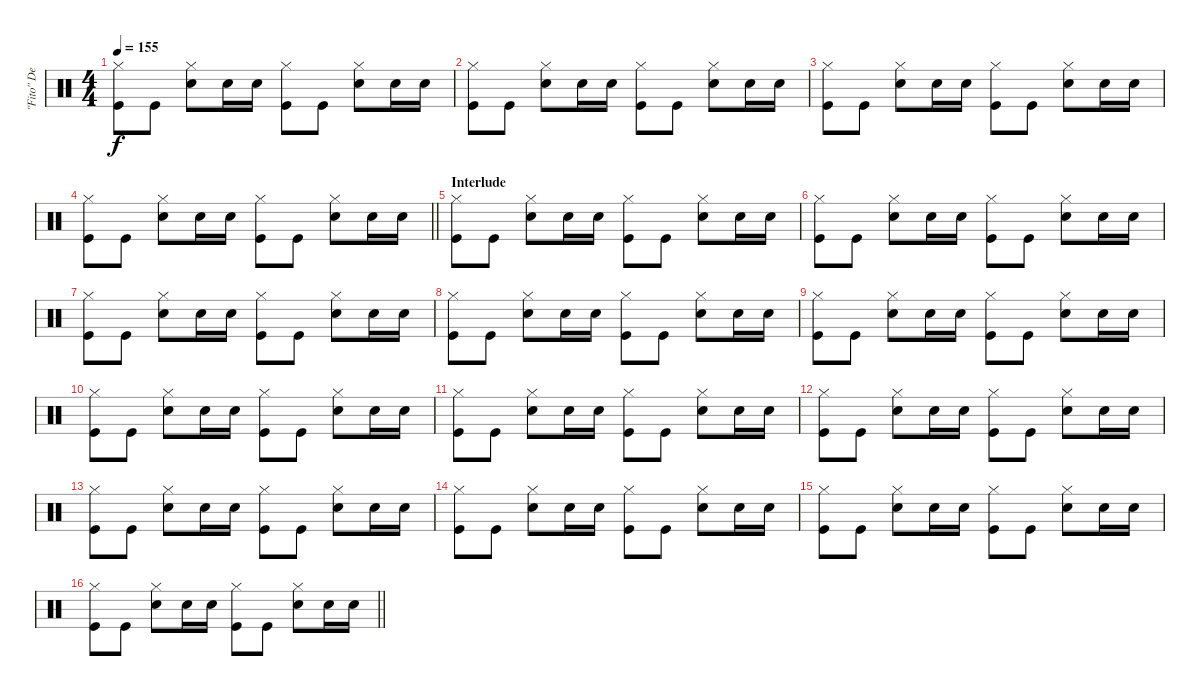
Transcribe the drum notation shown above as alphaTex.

\track ("\"Fito\" De La Parra" "\"Fito\" De ") {instrument percussion}
\staff {score}
\articulation defaults
\ts (4 4)
\tempo 155
\clef neutral
\ks c
("Hi-Hat (closed)" "Kick (hit)").8{dy f} "Kick (hit)".8 ("Hi-Hat (closed)" "Snare (hit) 2").8 "Snare (hit) 2".16 "Snare (hit) 2".16 ("Hi-Hat (closed)" "Kick (hit)").8 "Kick (hit)".8 ("Hi-Hat (closed)" "Snare (hit) 2").8 "Snare (hit) 2".16 "Snare (hit) 2".16 |
("Hi-Hat (closed)" "Kick (hit)").8 "Kick (hit)".8 ("Hi-Hat (closed)" "Snare (hit) 2").8 "Snare (hit) 2".16 "Snare (hit) 2".16 ("Hi-Hat (closed)" "Kick (hit)").8 "Kick (hit)".8 ("Hi-Hat (closed)" "Snare (hit) 2").8 "Snare (hit) 2".16 "Snare (hit) 2".16 |
("Hi-Hat (closed)" "Kick (hit)").8 "Kick (hit)".8 ("Hi-Hat (closed)" "Snare (hit) 2").8 "Snare (hit) 2".16 "Snare (hit) 2".16 ("Hi-Hat (closed)" "Kick (hit)").8 "Kick (hit)".8 ("Hi-Hat (closed)" "Snare (hit) 2").8 "Snare (hit) 2".16 "Snare (hit) 2".16 |
\barLineRight lightlight
("Hi-Hat (closed)" "Kick (hit)").8 "Kick (hit)".8 ("Hi-Hat (closed)" "Snare (hit) 2").8 "Snare (hit) 2".16 "Snare (hit) 2".16 ("Hi-Hat (closed)" "Kick (hit)").8 "Kick (hit)".8 ("Hi-Hat (closed)" "Snare (hit) 2").8 "Snare (hit) 2".16 "Snare (hit) 2".16 |
\section ("" "Interlude")
("Hi-Hat (closed)" "Kick (hit)").8 "Kick (hit)".8 ("Hi-Hat (closed)" "Snare (hit) 2").8 "Snare (hit) 2".16 "Snare (hit) 2".16 ("Hi-Hat (closed)" "Kick (hit)").8 "Kick (hit)".8 ("Hi-Hat (closed)" "Snare (hit) 2").8 "Snare (hit) 2".16 "Snare (hit) 2".16 |
("Hi-Hat (closed)" "Kick (hit)").8 "Kick (hit)".8 ("Hi-Hat (closed)" "Snare (hit) 2").8 "Snare (hit) 2".16 "Snare (hit) 2".16 ("Hi-Hat (closed)" "Kick (hit)").8 "Kick (hit)".8 ("Hi-Hat (closed)" "Snare (hit) 2").8 "Snare (hit) 2".16 "Snare (hit) 2".16 |
("Hi-Hat (closed)" "Kick (hit)").8 "Kick (hit)".8 ("Hi-Hat (closed)" "Snare (hit) 2").8 "Snare (hit) 2".16 "Snare (hit) 2".16 ("Hi-Hat (closed)" "Kick (hit)").8 "Kick (hit)".8 ("Hi-Hat (closed)" "Snare (hit) 2").8 "Snare (hit) 2".16 "Snare (hit) 2".16 |
("Hi-Hat (closed)" "Kick (hit)").8 "Kick (hit)".8 ("Hi-Hat (closed)" "Snare (hit) 2").8 "Snare (hit) 2".16 "Snare (hit) 2".16 ("Hi-Hat (closed)" "Kick (hit)").8 "Kick (hit)".8 ("Hi-Hat (closed)" "Snare (hit) 2").8 "Snare (hit) 2".16 "Snare (hit) 2".16 |
("Hi-Hat (closed)" "Kick (hit)").8 "Kick (hit)".8 ("Hi-Hat (closed)" "Snare (hit) 2").8 "Snare (hit) 2".16 "Snare (hit) 2".16 ("Hi-Hat (closed)" "Kick (hit)").8 "Kick (hit)".8 ("Hi-Hat (closed)" "Snare (hit) 2").8 "Snare (hit) 2".16 "Snare (hit) 2".16 |
("Hi-Hat (closed)" "Kick (hit)").8 "Kick (hit)".8 ("Hi-Hat (closed)" "Snare (hit) 2").8 "Snare (hit) 2".16 "Snare (hit) 2".16 ("Hi-Hat (closed)" "Kick (hit)").8 "Kick (hit)".8 ("Hi-Hat (closed)" "Snare (hit) 2").8 "Snare (hit) 2".16 "Snare (hit) 2".16 |
("Hi-Hat (closed)" "Kick (hit)").8 "Kick (hit)".8 ("Hi-Hat (closed)" "Snare (hit) 2").8 "Snare (hit) 2".16 "Snare (hit) 2".16 ("Hi-Hat (closed)" "Kick (hit)").8 "Kick (hit)".8 ("Hi-Hat (closed)" "Snare (hit) 2").8 "Snare (hit) 2".16 "Snare (hit) 2".16 |
("Hi-Hat (closed)" "Kick (hit)").8 "Kick (hit)".8 ("Hi-Hat (closed)" "Snare (hit) 2").8 "Snare (hit) 2".16 "Snare (hit) 2".16 ("Hi-Hat (closed)" "Kick (hit)").8 "Kick (hit)".8 ("Hi-Hat (closed)" "Snare (hit) 2").8 "Snare (hit) 2".16 "Snare (hit) 2".16 |
("Hi-Hat (closed)" "Kick (hit)").8 "Kick (hit)".8 ("Hi-Hat (closed)" "Snare (hit) 2").8 "Snare (hit) 2".16 "Snare (hit) 2".16 ("Hi-Hat (closed)" "Kick (hit)").8 "Kick (hit)".8 ("Hi-Hat (closed)" "Snare (hit) 2").8 "Snare (hit) 2".16 "Snare (hit) 2".16 |
("Hi-Hat (closed)" "Kick (hit)").8 "Kick (hit)".8 ("Hi-Hat (closed)" "Snare (hit) 2").8 "Snare (hit) 2".16 "Snare (hit) 2".16 ("Hi-Hat (closed)" "Kick (hit)").8 "Kick (hit)".8 ("Hi-Hat (closed)" "Snare (hit) 2").8 "Snare (hit) 2".16 "Snare (hit) 2".16 |
("Hi-Hat (closed)" "Kick (hit)").8 "Kick (hit)".8 ("Hi-Hat (closed)" "Snare (hit) 2").8 "Snare (hit) 2".16 "Snare (hit) 2".16 ("Hi-Hat (closed)" "Kick (hit)").8 "Kick (hit)".8 ("Hi-Hat (closed)" "Snare (hit) 2").8 "Snare (hit) 2".16 "Snare (hit) 2".16 |
\barLineRight lightlight
("Hi-Hat (closed)" "Kick (hit)").8 "Kick (hit)".8 ("Hi-Hat (closed)" "Snare (hit) 2").8 "Snare (hit) 2".16 "Snare (hit) 2".16 ("Hi-Hat (closed)" "Kick (hit)").8 "Kick (hit)".8 ("Hi-Hat (closed)" "Snare (hit) 2").8 "Snare (hit) 2".16 "Snare (hit) 2".16
